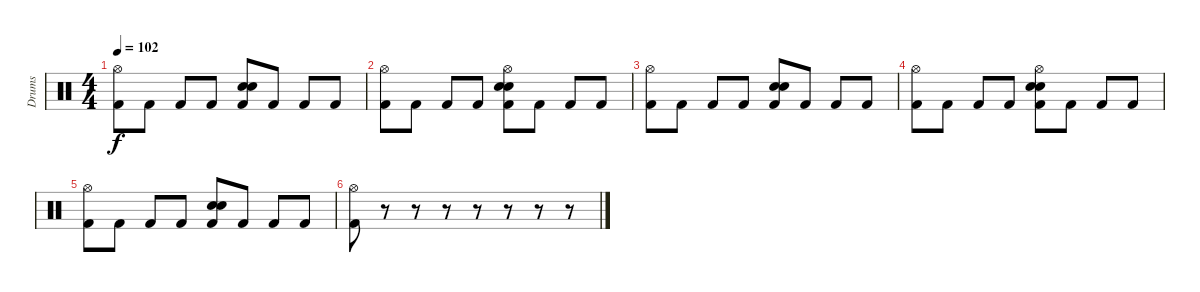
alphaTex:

\track ("Drums" "Drums") {instrument percussion}
\staff {score}
\articulation defaults
\ts (4 4)
\tempo 102
\clef neutral
\ks c
("Hi-Hat (open)" "Kick (hit) 2").8{dy f} "Kick (hit) 2".8 "Kick (hit) 2".8 "Kick (hit) 2".8 ("Electric Snare (hit)" "Electric Snare (hit)" "Kick (hit) 2").8 "Kick (hit) 2".8 "Kick (hit) 2".8 "Kick (hit) 2".8 |
("Hi-Hat (open)" "Kick (hit) 2").8 "Kick (hit) 2".8 "Kick (hit) 2".8 "Kick (hit) 2".8 ("Hi-Hat (open)" "Electric Snare (hit)" "Electric Snare (hit)" "Kick (hit) 2").8 "Kick (hit) 2".8 "Kick (hit) 2".8 "Kick (hit) 2".8 |
("Hi-Hat (open)" "Kick (hit) 2").8 "Kick (hit) 2".8 "Kick (hit) 2".8 "Kick (hit) 2".8 ("Electric Snare (hit)" "Electric Snare (hit)" "Kick (hit) 2").8 "Kick (hit) 2".8 "Kick (hit) 2".8 "Kick (hit) 2".8 |
("Hi-Hat (open)" "Kick (hit) 2").8 "Kick (hit) 2".8 "Kick (hit) 2".8 "Kick (hit) 2".8 ("Hi-Hat (open)" "Electric Snare (hit)" "Electric Snare (hit)" "Kick (hit) 2").8 "Kick (hit) 2".8 "Kick (hit) 2".8 "Kick (hit) 2".8 |
("Hi-Hat (open)" "Kick (hit) 2").8 "Kick (hit) 2".8 "Kick (hit) 2".8 "Kick (hit) 2".8 ("Electric Snare (hit)" "Electric Snare (hit)" "Kick (hit) 2").8 "Kick (hit) 2".8 "Kick (hit) 2".8 "Kick (hit) 2".8 |
("Hi-Hat (open)" "Kick (hit) 2").8 r.8 r.8 r.8 r.8 r.8 r.8 r.8
